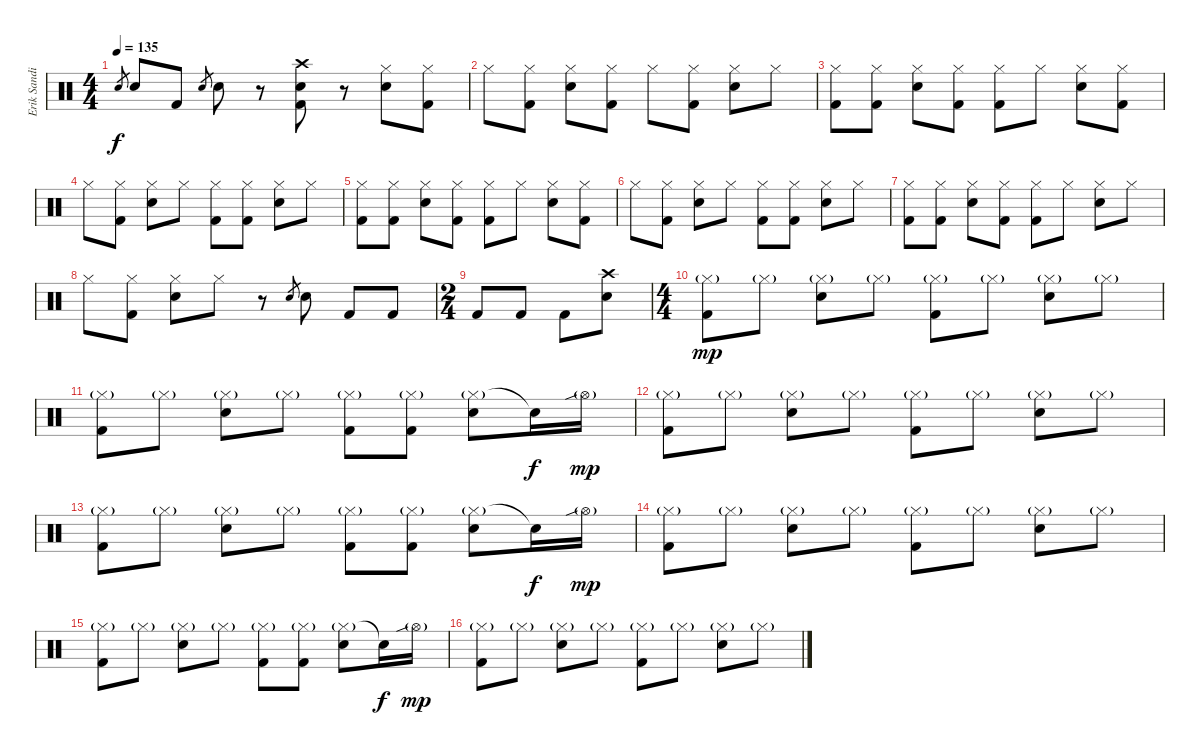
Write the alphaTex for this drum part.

\track ("Erik Sandin" "Erik Sandi") {instrument percussion}
\staff {score}
\articulation defaults
\ts (4 4)
\tempo 135
\clef neutral
\ks c "Snare (hit) 2".8{gr dy f} "Snare (hit) 2".8 "Kick (hit) 2".8 "Snare (hit) 2".8{gr} "Snare (hit) 2".8
r.8 ("Crash high (hit)" "Snare (hit) 2" "Kick (hit) 2").8 r.8 ("Hi-Hat (closed)" "Snare (hit) 2").8 ("Hi-Hat (closed)" "Kick (hit) 2").8 |
"Hi-Hat (closed)".8 ("Hi-Hat (closed)" "Kick (hit) 2").8 ("Hi-Hat (closed)" "Snare (hit) 2").8 ("Hi-Hat (closed)" "Kick (hit) 2").8 "Hi-Hat (closed)".8 ("Hi-Hat (closed)" "Kick (hit) 2").8 ("Hi-Hat (closed)" "Snare (hit) 2").8 "Hi-Hat (closed)".8 |
("Hi-Hat (closed)" "Kick (hit) 2").8 ("Hi-Hat (closed)" "Kick (hit) 2").8 ("Hi-Hat (closed)" "Snare (hit) 2").8 ("Hi-Hat (closed)" "Kick (hit) 2").8 ("Hi-Hat (closed)" "Kick (hit) 2").8 "Hi-Hat (closed)".8 ("Hi-Hat (closed)" "Snare (hit) 2").8 ("Hi-Hat (closed)" "Kick (hit) 2").8 |
"Hi-Hat (closed)".8 ("Hi-Hat (closed)" "Kick (hit) 2").8 ("Hi-Hat (closed)" "Snare (hit) 2").8 "Hi-Hat (closed)".8 ("Hi-Hat (closed)" "Kick (hit) 2").8 ("Hi-Hat (closed)" "Kick (hit) 2").8 ("Hi-Hat (closed)" "Snare (hit) 2").8 "Hi-Hat (closed)".8 |
("Hi-Hat (closed)" "Kick (hit) 2").8 ("Hi-Hat (closed)" "Kick (hit) 2").8 ("Hi-Hat (closed)" "Snare (hit) 2").8 ("Hi-Hat (closed)" "Kick (hit) 2").8 ("Hi-Hat (closed)" "Kick (hit) 2").8 "Hi-Hat (closed)".8 ("Hi-Hat (closed)" "Snare (hit) 2").8 ("Hi-Hat (closed)" "Kick (hit) 2").8 |
"Hi-Hat (closed)".8 ("Hi-Hat (closed)" "Kick (hit) 2").8 ("Hi-Hat (closed)" "Snare (hit) 2").8 "Hi-Hat (closed)".8 ("Hi-Hat (closed)" "Kick (hit) 2").8 ("Hi-Hat (closed)" "Kick (hit) 2").8 ("Hi-Hat (closed)" "Snare (hit) 2").8 "Hi-Hat (closed)".8 |
("Hi-Hat (closed)" "Kick (hit) 2").8 ("Hi-Hat (closed)" "Kick (hit) 2").8 ("Hi-Hat (closed)" "Snare (hit) 2").8 ("Hi-Hat (closed)" "Kick (hit) 2").8 ("Hi-Hat (closed)" "Kick (hit) 2").8 "Hi-Hat (closed)".8 ("Hi-Hat (closed)" "Snare (hit) 2").8 "Hi-Hat (closed)".8 |
"Hi-Hat (closed)".8 ("Hi-Hat (closed)" "Kick (hit) 2").8 ("Hi-Hat (closed)" "Snare (hit) 2").8 "Hi-Hat (closed)".8 r.8 "Snare (hit) 2".8{gr} "Snare (hit) 2".8 "Kick (hit) 2".8 "Kick (hit) 2".8 |
\ts (2 4)
"Kick (hit) 2".8 "Kick (hit) 2".8 "Kick (hit) 2".8 ("Crash high (hit)" "Snare (hit) 2").8 |
\ts (4 4)
("Hi-Hat (closed)"{g} "Kick (hit) 2").8{dy mp} "Hi-Hat (closed)"{g}.8 ("Hi-Hat (closed)"{g} "Snare (hit) 2").8 "Hi-Hat (closed)"{g}.8 ("Hi-Hat (closed)"{g} "Kick (hit) 2").8 "Hi-Hat (closed)"{g}.8 ("Hi-Hat (closed)"{g} "Snare (hit) 2").8 "Hi-Hat (closed)"{g}.8 |
("Hi-Hat (closed)"{g} "Kick (hit) 2").8 "Hi-Hat (closed)"{g}.8 ("Hi-Hat (closed)"{g} "Snare (hit) 2").8 "Hi-Hat (closed)"{g}.8 ("Hi-Hat (closed)"{g} "Kick (hit) 2").8 ("Hi-Hat (closed)"{g} "Kick (hit) 2").8 ("Hi-Hat (closed)"{g} "Snare (hit) 2").8 "Snare (hit)"{t}.16{dy f} "Hi-Hat (open)"{sib g}.16{dy mp} |
("Hi-Hat (closed)"{g} "Kick (hit) 2").8 "Hi-Hat (closed)"{g}.8 ("Hi-Hat (closed)"{g} "Snare (hit) 2").8 "Hi-Hat (closed)"{g}.8 ("Hi-Hat (closed)"{g} "Kick (hit) 2").8 "Hi-Hat (closed)"{g}.8 ("Hi-Hat (closed)"{g} "Snare (hit) 2").8 "Hi-Hat (closed)"{g}.8 |
("Hi-Hat (closed)"{g} "Kick (hit) 2").8 "Hi-Hat (closed)"{g}.8 ("Hi-Hat (closed)"{g} "Snare (hit) 2").8 "Hi-Hat (closed)"{g}.8 ("Hi-Hat (closed)"{g} "Kick (hit) 2").8 ("Hi-Hat (closed)"{g} "Kick (hit) 2").8 ("Hi-Hat (closed)"{g} "Snare (hit) 2").8 "Snare (hit)"{t}.16{dy f} "Hi-Hat (open)"{sib g}.16{dy mp} |
("Hi-Hat (closed)"{g} "Kick (hit) 2").8 "Hi-Hat (closed)"{g}.8 ("Hi-Hat (closed)"{g} "Snare (hit) 2").8 "Hi-Hat (closed)"{g}.8 ("Hi-Hat (closed)"{g} "Kick (hit) 2").8 "Hi-Hat (closed)"{g}.8 ("Hi-Hat (closed)"{g} "Snare (hit) 2").8 "Hi-Hat (closed)"{g}.8 |
("Hi-Hat (closed)"{g} "Kick (hit) 2").8 "Hi-Hat (closed)"{g}.8 ("Hi-Hat (closed)"{g} "Snare (hit) 2").8 "Hi-Hat (closed)"{g}.8 ("Hi-Hat (closed)"{g} "Kick (hit) 2").8 ("Hi-Hat (closed)"{g} "Kick (hit) 2").8 ("Hi-Hat (closed)"{g} "Snare (hit) 2").8 "Snare (hit)"{t}.16{dy f} "Hi-Hat (open)"{sib g}.16{dy mp} |
("Hi-Hat (closed)"{g} "Kick (hit) 2").8 "Hi-Hat (closed)"{g}.8 ("Hi-Hat (closed)"{g} "Snare (hit) 2").8 "Hi-Hat (closed)"{g}.8 ("Hi-Hat (closed)"{g} "Kick (hit) 2").8 "Hi-Hat (closed)"{g}.8 ("Hi-Hat (closed)"{g} "Snare (hit) 2").8 "Hi-Hat (closed)"{g}.8
